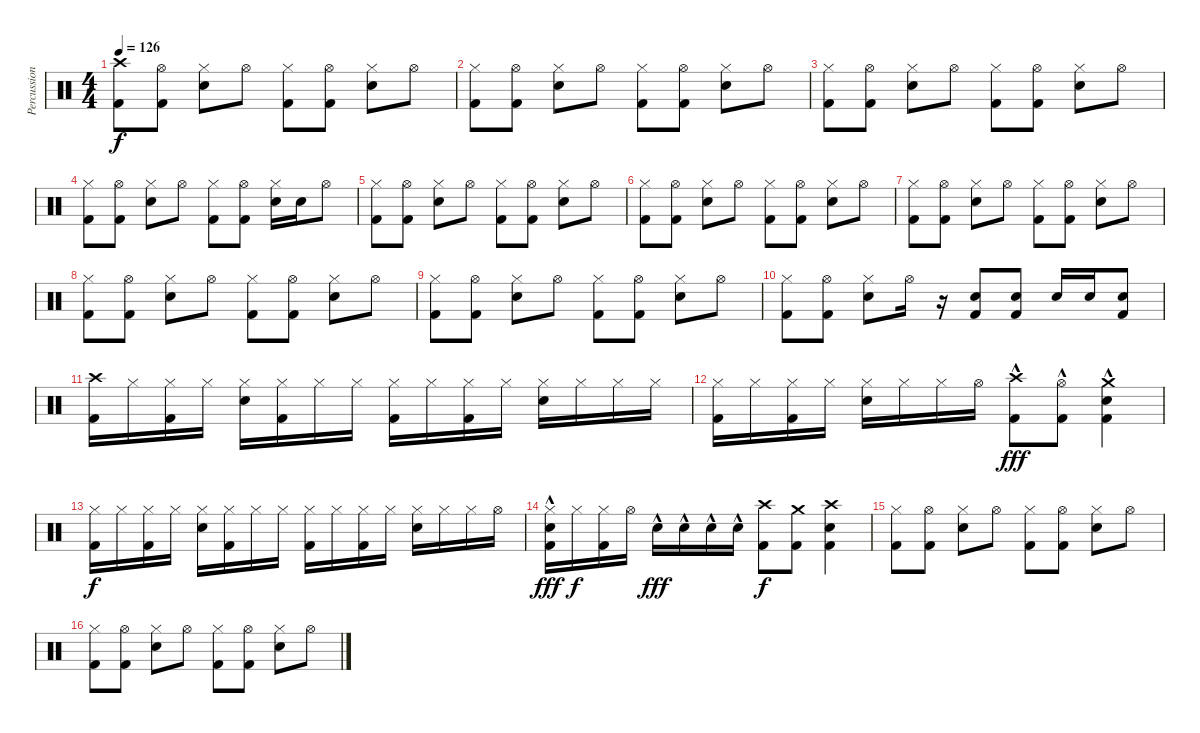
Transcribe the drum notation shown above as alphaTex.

\track ("Percussion" "Percussion") {instrument percussion}
\staff {score}
\articulation defaults
\ts (4 4)
\tempo 126
\clef neutral
\ks c
("Crash high (hit)" "Kick (hit) 2").8{dy f} ("Hi-Hat (open)" "Kick (hit) 2").8 ("Hi-Hat (closed)" "Electric Snare (hit)").8 "Hi-Hat (open)".8 ("Hi-Hat (closed)" "Kick (hit) 2").8 ("Hi-Hat (open)" "Kick (hit) 2").8 ("Hi-Hat (closed)" "Electric Snare (hit)").8 "Hi-Hat (open)".8 |
("Hi-Hat (closed)" "Kick (hit) 2").8 ("Hi-Hat (open)" "Kick (hit) 2").8 ("Hi-Hat (closed)" "Electric Snare (hit)").8 "Hi-Hat (open)".8 ("Hi-Hat (closed)" "Kick (hit) 2").8 ("Hi-Hat (open)" "Kick (hit) 2").8 ("Hi-Hat (closed)" "Electric Snare (hit)").8 "Hi-Hat (open)".8 |
("Hi-Hat (closed)" "Kick (hit) 2").8 ("Hi-Hat (open)" "Kick (hit) 2").8 ("Hi-Hat (closed)" "Electric Snare (hit)").8 "Hi-Hat (open)".8 ("Hi-Hat (closed)" "Kick (hit) 2").8 ("Hi-Hat (open)" "Kick (hit) 2").8 ("Hi-Hat (closed)" "Electric Snare (hit)").8 "Hi-Hat (open)".8 |
("Hi-Hat (closed)" "Kick (hit) 2").8 ("Hi-Hat (open)" "Kick (hit) 2").8 ("Hi-Hat (closed)" "Electric Snare (hit)").8 "Hi-Hat (open)".8 ("Hi-Hat (closed)" "Kick (hit) 2").8 ("Hi-Hat (open)" "Kick (hit) 2").8 ("Hi-Hat (closed)" "Electric Snare (hit)").16 "Electric Snare (hit)".16 "Hi-Hat (open)".8 |
("Hi-Hat (closed)" "Kick (hit) 2").8 ("Hi-Hat (open)" "Kick (hit) 2").8 ("Hi-Hat (closed)" "Electric Snare (hit)").8 "Hi-Hat (open)".8 ("Hi-Hat (closed)" "Kick (hit) 2").8 ("Hi-Hat (open)" "Kick (hit) 2").8 ("Hi-Hat (closed)" "Electric Snare (hit)").8 "Hi-Hat (open)".8 |
("Hi-Hat (closed)" "Kick (hit) 2").8 ("Hi-Hat (open)" "Kick (hit) 2").8 ("Hi-Hat (closed)" "Electric Snare (hit)").8 "Hi-Hat (open)".8 ("Hi-Hat (closed)" "Kick (hit) 2").8 ("Hi-Hat (open)" "Kick (hit) 2").8 ("Hi-Hat (closed)" "Electric Snare (hit)").8 "Hi-Hat (open)".8 |
("Hi-Hat (closed)" "Kick (hit) 2").8 ("Hi-Hat (open)" "Kick (hit) 2").8 ("Hi-Hat (closed)" "Electric Snare (hit)").8 "Hi-Hat (open)".8 ("Hi-Hat (closed)" "Kick (hit) 2").8 ("Hi-Hat (open)" "Kick (hit) 2").8 ("Hi-Hat (closed)" "Electric Snare (hit)").8 "Hi-Hat (open)".8 |
("Hi-Hat (closed)" "Kick (hit) 2").8 ("Hi-Hat (open)" "Kick (hit) 2").8 ("Hi-Hat (closed)" "Electric Snare (hit)").8 "Hi-Hat (open)".8 ("Hi-Hat (closed)" "Kick (hit) 2").8 ("Hi-Hat (open)" "Kick (hit) 2").8 ("Hi-Hat (closed)" "Electric Snare (hit)").8 "Hi-Hat (open)".8 |
("Hi-Hat (closed)" "Kick (hit) 2").8 ("Hi-Hat (open)" "Kick (hit) 2").8 ("Hi-Hat (closed)" "Electric Snare (hit)").8 "Hi-Hat (open)".8 ("Hi-Hat (closed)" "Kick (hit) 2").8 ("Hi-Hat (open)" "Kick (hit) 2").8 ("Hi-Hat (closed)" "Electric Snare (hit)").8 "Hi-Hat (open)".8 |
("Hi-Hat (closed)" "Kick (hit) 2").8 ("Hi-Hat (open)" "Kick (hit) 2").8 ("Hi-Hat (closed)" "Electric Snare (hit)").8 "Hi-Hat (open)".16 r.16 ("Electric Snare (hit)" "Kick (hit) 2").8 ("Electric Snare (hit)" "Kick (hit) 2").8 "Electric Snare (hit)".16 "Electric Snare (hit)".16 ("Electric Snare (hit)" "Kick (hit) 2").8 |
("Crash high (hit)" "Kick (hit) 2").16 "Hi-Hat (closed)".16 ("Hi-Hat (closed)" "Kick (hit) 2").16 "Hi-Hat (closed)".16 ("Hi-Hat (closed)" "Electric Snare (hit)").16 ("Hi-Hat (closed)" "Kick (hit) 2").16 "Hi-Hat (closed)".16 "Hi-Hat (closed)".16 ("Hi-Hat (closed)" "Kick (hit) 2").16 "Hi-Hat (closed)".16 ("Hi-Hat (closed)" "Kick (hit) 2").16 "Hi-Hat (closed)".16 ("Hi-Hat (closed)" "Electric Snare (hit)").16 "Hi-Hat (closed)".16 "Hi-Hat (closed)".16 "Hi-Hat (closed)".16 |
("Hi-Hat (closed)" "Kick (hit) 2").16 "Hi-Hat (closed)".16 ("Hi-Hat (closed)" "Kick (hit) 2").16 "Hi-Hat (closed)".16 ("Hi-Hat (closed)" "Electric Snare (hit)").16 "Hi-Hat (closed)".16 "Hi-Hat (closed)".16 "Hi-Hat (open)".16 ("Crash high (hit)"{hac} "Kick (hit) 2").8{dy fff} ("Hi-Hat (open)"{hac} "Kick (hit) 2").8 ("Crash medium (hit)"{hac} "Electric Snare (hit)"{hac} "Kick (hit) 2").4 |
("Hi-Hat (closed)" "Kick (hit) 2").16{dy f} "Hi-Hat (closed)".16 ("Hi-Hat (closed)" "Kick (hit) 2").16 "Hi-Hat (closed)".16 ("Hi-Hat (closed)" "Electric Snare (hit)").16 ("Hi-Hat (closed)" "Kick (hit) 2").16 "Hi-Hat (closed)".16 "Hi-Hat (closed)".16 ("Hi-Hat (closed)" "Kick (hit) 2").16 "Hi-Hat (closed)".16 ("Hi-Hat (closed)" "Kick (hit) 2").16 "Hi-Hat (closed)".16 ("Hi-Hat (closed)" "Electric Snare (hit)").16 "Hi-Hat (closed)".16 "Hi-Hat (closed)".16 "Hi-Hat (open)".16 |
("Hi-Hat (closed)" "Electric Snare (hit)"{hac} "Kick (hit) 2").16{dy fff} "Hi-Hat (closed)".16{dy f} ("Hi-Hat (closed)" "Kick (hit) 2").16 "Hi-Hat (open)".16 "Electric Snare (hit)"{hac}.16{dy fff} "Electric Snare (hit)"{hac}.16 "Electric Snare (hit)"{hac}.16 "Electric Snare (hit)"{hac}.16 ("Crash high (hit)" "Kick (hit) 2").8{dy f} ("Crash medium (hit)" "Kick (hit) 2").8 ("Crash high (hit)" "Electric Snare (hit)" "Kick (hit) 2").4 |
("Hi-Hat (closed)" "Kick (hit) 2").8 ("Hi-Hat (open)" "Kick (hit) 2").8 ("Hi-Hat (closed)" "Electric Snare (hit)").8 "Hi-Hat (open)".8 ("Hi-Hat (closed)" "Kick (hit) 2").8 ("Hi-Hat (open)" "Kick (hit) 2").8 ("Hi-Hat (closed)" "Electric Snare (hit)").8 "Hi-Hat (open)".8 |
("Hi-Hat (closed)" "Kick (hit) 2").8 ("Hi-Hat (open)" "Kick (hit) 2").8 ("Hi-Hat (closed)" "Electric Snare (hit)").8 "Hi-Hat (open)".8 ("Hi-Hat (closed)" "Kick (hit) 2").8 ("Hi-Hat (open)" "Kick (hit) 2").8 ("Hi-Hat (closed)" "Electric Snare (hit)").8 "Hi-Hat (open)".8
